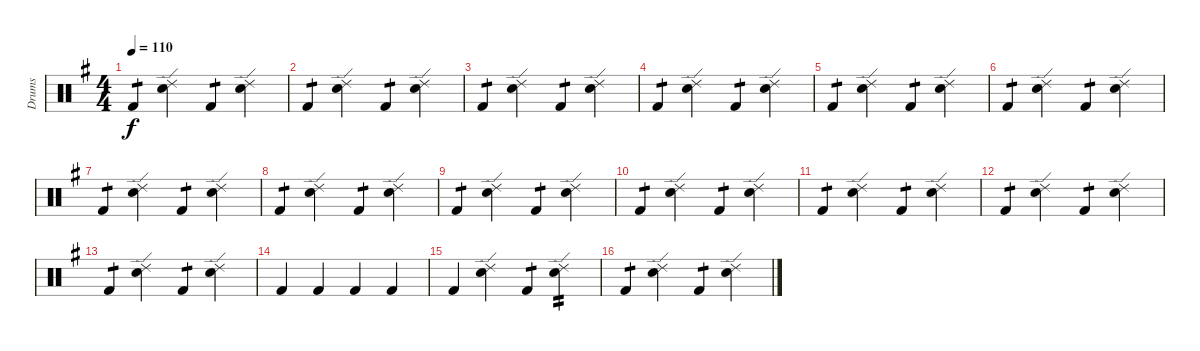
\track ("Drums" "Drums") {instrument percussion}
\staff {score}
\articulation defaults
\ts (4 4)
\tempo 110
\clef neutral
\ks g "Kick (hit) 2".4{tp 1 dy f}
("Ride (edge) 2" "Snare (hit) 2").4 "Kick (hit) 2".4{tp 1} ("Ride (edge) 2" "Snare (hit) 2").4 |
"Kick (hit) 2".4{tp 1} ("Ride (edge) 2" "Snare (hit) 2").4 "Kick (hit) 2".4{tp 1} ("Ride (edge) 2" "Snare (hit) 2").4 |
"Kick (hit) 2".4{tp 1} ("Ride (edge) 2" "Snare (hit) 2").4 "Kick (hit) 2".4{tp 1} ("Ride (edge) 2" "Snare (hit) 2").4 |
"Kick (hit) 2".4{tp 1} ("Ride (edge) 2" "Snare (hit) 2").4 "Kick (hit) 2".4{tp 1} ("Ride (edge) 2" "Snare (hit) 2").4 |
"Kick (hit) 2".4{tp 1} ("Ride (edge) 2" "Snare (hit) 2").4 "Kick (hit) 2".4{tp 1} ("Ride (edge) 2" "Snare (hit) 2").4 |
"Kick (hit) 2".4{tp 1} ("Ride (edge) 2" "Snare (hit) 2").4 "Kick (hit) 2".4{tp 1} ("Ride (edge) 2" "Snare (hit) 2").4 |
"Kick (hit) 2".4{tp 1} ("Ride (edge) 2" "Snare (hit) 2").4 "Kick (hit) 2".4{tp 1} ("Ride (edge) 2" "Snare (hit) 2").4 |
"Kick (hit) 2".4{tp 1} ("Ride (edge) 2" "Snare (hit) 2").4 "Kick (hit) 2".4{tp 1} ("Ride (edge) 2" "Snare (hit) 2").4 |
"Kick (hit) 2".4{tp 1} ("Ride (edge) 2" "Snare (hit) 2").4 "Kick (hit) 2".4{tp 1} ("Ride (edge) 2" "Snare (hit) 2").4 |
"Kick (hit) 2".4{tp 1} ("Ride (edge) 2" "Snare (hit) 2").4 "Kick (hit) 2".4{tp 1} ("Ride (edge) 2" "Snare (hit) 2").4 |
"Kick (hit) 2".4{tp 1} ("Ride (edge) 2" "Snare (hit) 2").4 "Kick (hit) 2".4{tp 1} ("Ride (edge) 2" "Snare (hit) 2").4 |
"Kick (hit) 2".4{tp 1} ("Ride (edge) 2" "Snare (hit) 2").4 "Kick (hit) 2".4{tp 1} ("Ride (edge) 2" "Snare (hit) 2").4 |
"Kick (hit) 2".4{tp 1} ("Ride (edge) 2" "Snare (hit) 2").4 "Kick (hit) 2".4{tp 1} ("Ride (edge) 2" "Snare (hit) 2").4 |
"Kick (hit) 2".4 "Kick (hit) 2".4 "Kick (hit) 2".4 "Kick (hit) 2".4 |
"Kick (hit) 2".4 ("Ride (edge) 2" "Snare (hit) 2").4 "Kick (hit) 2".4{tp 1} ("Ride (edge) 2" "Snare (hit) 2").4{tp 2} |
"Kick (hit) 2".4{tp 1} ("Ride (edge) 2" "Snare (hit) 2").4 "Kick (hit) 2".4{tp 1} ("Ride (edge) 2" "Snare (hit) 2").4
